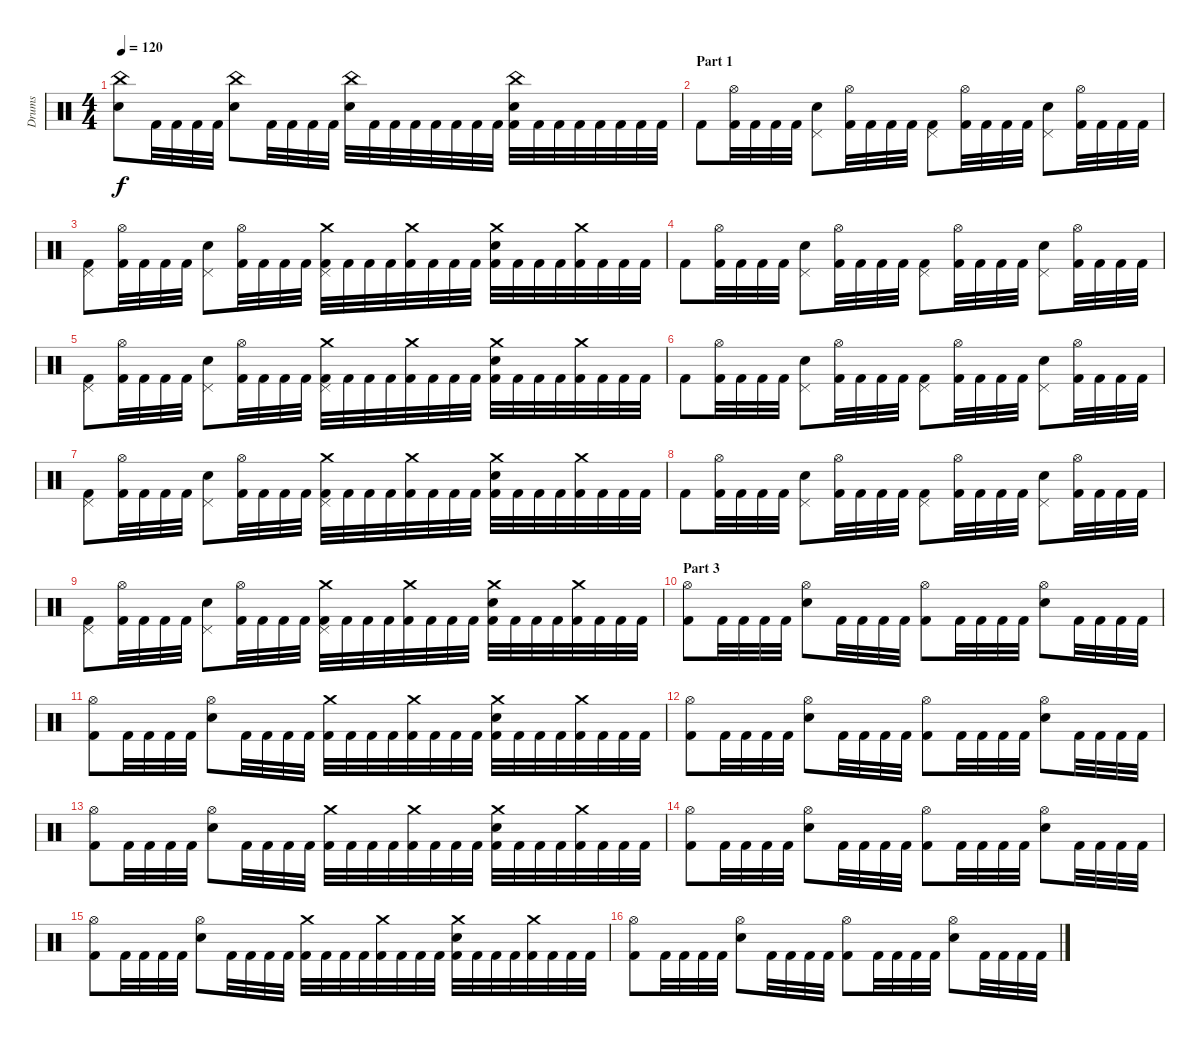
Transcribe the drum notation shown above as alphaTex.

\track ("Drums" "Drums") {instrument percussion}
\staff {score}
\articulation defaults
\ts (4 4)
\tempo 120
\clef neutral
\ks c
("China (hit)" "Electric Snare (hit)").8{dy f} "Kick (hit) 2".32 "Kick (hit) 2".32 "Kick (hit) 2".32 "Kick (hit) 2".32 ("China (hit)" "Electric Snare (hit)").8 "Kick (hit) 2".32 "Kick (hit) 2".32 "Kick (hit) 2".32 "Kick (hit) 2".32 ("China (hit)" "Electric Snare (hit)").32 "Kick (hit) 2".32 "Kick (hit) 2".32 "Kick (hit) 2".32 "Kick (hit) 2".32 "Kick (hit) 2".32 "Kick (hit) 2".32 "Kick (hit) 2".32 ("China (hit)" "Electric Snare (hit)" "Kick (hit) 2").32 "Kick (hit) 2".32 "Kick (hit) 2".32 "Kick (hit) 2".32 "Kick (hit) 2".32 "Kick (hit) 2".32 "Kick (hit) 2".32 "Kick (hit) 2".32 |
\section ("" "Part 1")
"Kick (hit) 2".8 ("Hi-Hat (open)" "Kick (hit) 2").32 "Kick (hit) 2".32 "Kick (hit) 2".32 "Kick (hit) 2".32 ("Pedal Hi-Hat (hit)" "Electric Snare (hit)").8 ("Hi-Hat (open)" "Kick (hit) 2").32 "Kick (hit) 2".32 "Kick (hit) 2".32 "Kick (hit) 2".32 ("Pedal Hi-Hat (hit)" "Kick (hit) 2").8 ("Hi-Hat (open)" "Kick (hit) 2").32 "Kick (hit) 2".32 "Kick (hit) 2".32 "Kick (hit) 2".32 ("Pedal Hi-Hat (hit)" "Electric Snare (hit)").8 ("Hi-Hat (open)" "Kick (hit) 2").32 "Kick (hit) 2".32 "Kick (hit) 2".32 "Kick (hit) 2".32 |
("Pedal Hi-Hat (hit)" "Kick (hit) 2").8 ("Hi-Hat (open)" "Kick (hit) 2").32 "Kick (hit) 2".32 "Kick (hit) 2".32 "Kick (hit) 2".32 ("Pedal Hi-Hat (hit)" "Electric Snare (hit)").8 ("Hi-Hat (open)" "Kick (hit) 2").32 "Kick (hit) 2".32 "Kick (hit) 2".32 "Kick (hit) 2".32 ("Crash medium (hit)" "Pedal Hi-Hat (hit)" "Kick (hit) 2").32 "Kick (hit) 2".32 "Kick (hit) 2".32 "Kick (hit) 2".32 ("Crash medium (hit)" "Kick (hit) 2").32 "Kick (hit) 2".32 "Kick (hit) 2".32 "Kick (hit) 2".32 ("Crash medium (hit)" "Electric Snare (hit)" "Kick (hit) 2").32 "Kick (hit) 2".32 "Kick (hit) 2".32 "Kick (hit) 2".32 ("Crash medium (hit)" "Kick (hit) 2").32 "Kick (hit) 2".32 "Kick (hit) 2".32 "Kick (hit) 2".32 |
"Kick (hit) 2".8 ("Hi-Hat (open)" "Kick (hit) 2").32 "Kick (hit) 2".32 "Kick (hit) 2".32 "Kick (hit) 2".32 ("Pedal Hi-Hat (hit)" "Electric Snare (hit)").8 ("Hi-Hat (open)" "Kick (hit) 2").32 "Kick (hit) 2".32 "Kick (hit) 2".32 "Kick (hit) 2".32 ("Pedal Hi-Hat (hit)" "Kick (hit) 2").8 ("Hi-Hat (open)" "Kick (hit) 2").32 "Kick (hit) 2".32 "Kick (hit) 2".32 "Kick (hit) 2".32 ("Pedal Hi-Hat (hit)" "Electric Snare (hit)").8 ("Hi-Hat (open)" "Kick (hit) 2").32 "Kick (hit) 2".32 "Kick (hit) 2".32 "Kick (hit) 2".32 |
("Pedal Hi-Hat (hit)" "Kick (hit) 2").8 ("Hi-Hat (open)" "Kick (hit) 2").32 "Kick (hit) 2".32 "Kick (hit) 2".32 "Kick (hit) 2".32 ("Pedal Hi-Hat (hit)" "Electric Snare (hit)").8 ("Hi-Hat (open)" "Kick (hit) 2").32 "Kick (hit) 2".32 "Kick (hit) 2".32 "Kick (hit) 2".32 ("Crash medium (hit)" "Pedal Hi-Hat (hit)" "Kick (hit) 2").32 "Kick (hit) 2".32 "Kick (hit) 2".32 "Kick (hit) 2".32 ("Crash medium (hit)" "Kick (hit) 2").32 "Kick (hit) 2".32 "Kick (hit) 2".32 "Kick (hit) 2".32 ("Crash medium (hit)" "Electric Snare (hit)" "Kick (hit) 2").32 "Kick (hit) 2".32 "Kick (hit) 2".32 "Kick (hit) 2".32 ("Crash medium (hit)" "Kick (hit) 2").32 "Kick (hit) 2".32 "Kick (hit) 2".32 "Kick (hit) 2".32 |
"Kick (hit) 2".8 ("Hi-Hat (open)" "Kick (hit) 2").32 "Kick (hit) 2".32 "Kick (hit) 2".32 "Kick (hit) 2".32 ("Pedal Hi-Hat (hit)" "Electric Snare (hit)").8 ("Hi-Hat (open)" "Kick (hit) 2").32 "Kick (hit) 2".32 "Kick (hit) 2".32 "Kick (hit) 2".32 ("Pedal Hi-Hat (hit)" "Kick (hit) 2").8 ("Hi-Hat (open)" "Kick (hit) 2").32 "Kick (hit) 2".32 "Kick (hit) 2".32 "Kick (hit) 2".32 ("Pedal Hi-Hat (hit)" "Electric Snare (hit)").8 ("Hi-Hat (open)" "Kick (hit) 2").32 "Kick (hit) 2".32 "Kick (hit) 2".32 "Kick (hit) 2".32 |
("Pedal Hi-Hat (hit)" "Kick (hit) 2").8 ("Hi-Hat (open)" "Kick (hit) 2").32 "Kick (hit) 2".32 "Kick (hit) 2".32 "Kick (hit) 2".32 ("Pedal Hi-Hat (hit)" "Electric Snare (hit)").8 ("Hi-Hat (open)" "Kick (hit) 2").32 "Kick (hit) 2".32 "Kick (hit) 2".32 "Kick (hit) 2".32 ("Crash medium (hit)" "Pedal Hi-Hat (hit)" "Kick (hit) 2").32 "Kick (hit) 2".32 "Kick (hit) 2".32 "Kick (hit) 2".32 ("Crash medium (hit)" "Kick (hit) 2").32 "Kick (hit) 2".32 "Kick (hit) 2".32 "Kick (hit) 2".32 ("Crash medium (hit)" "Electric Snare (hit)" "Kick (hit) 2").32 "Kick (hit) 2".32 "Kick (hit) 2".32 "Kick (hit) 2".32 ("Crash medium (hit)" "Kick (hit) 2").32 "Kick (hit) 2".32 "Kick (hit) 2".32 "Kick (hit) 2".32 |
"Kick (hit) 2".8 ("Hi-Hat (open)" "Kick (hit) 2").32 "Kick (hit) 2".32 "Kick (hit) 2".32 "Kick (hit) 2".32 ("Pedal Hi-Hat (hit)" "Electric Snare (hit)").8 ("Hi-Hat (open)" "Kick (hit) 2").32 "Kick (hit) 2".32 "Kick (hit) 2".32 "Kick (hit) 2".32 ("Pedal Hi-Hat (hit)" "Kick (hit) 2").8 ("Hi-Hat (open)" "Kick (hit) 2").32 "Kick (hit) 2".32 "Kick (hit) 2".32 "Kick (hit) 2".32 ("Pedal Hi-Hat (hit)" "Electric Snare (hit)").8 ("Hi-Hat (open)" "Kick (hit) 2").32 "Kick (hit) 2".32 "Kick (hit) 2".32 "Kick (hit) 2".32 |
("Pedal Hi-Hat (hit)" "Kick (hit) 2").8 ("Hi-Hat (open)" "Kick (hit) 2").32 "Kick (hit) 2".32 "Kick (hit) 2".32 "Kick (hit) 2".32 ("Pedal Hi-Hat (hit)" "Electric Snare (hit)").8 ("Hi-Hat (open)" "Kick (hit) 2").32 "Kick (hit) 2".32 "Kick (hit) 2".32 "Kick (hit) 2".32 ("Crash medium (hit)" "Pedal Hi-Hat (hit)" "Kick (hit) 2").32 "Kick (hit) 2".32 "Kick (hit) 2".32 "Kick (hit) 2".32 ("Crash medium (hit)" "Kick (hit) 2").32 "Kick (hit) 2".32 "Kick (hit) 2".32 "Kick (hit) 2".32 ("Crash medium (hit)" "Electric Snare (hit)" "Kick (hit) 2").32 "Kick (hit) 2".32 "Kick (hit) 2".32 "Kick (hit) 2".32 ("Crash medium (hit)" "Kick (hit) 2").32 "Kick (hit) 2".32 "Kick (hit) 2".32 "Kick (hit) 2".32 |
\section ("" "Part 3")
("Hi-Hat (open)" "Kick (hit) 2").8 "Kick (hit) 2".32 "Kick (hit) 2".32 "Kick (hit) 2".32 "Kick (hit) 2".32 ("Hi-Hat (open)" "Electric Snare (hit)").8 "Kick (hit) 2".32 "Kick (hit) 2".32 "Kick (hit) 2".32 "Kick (hit) 2".32 ("Hi-Hat (open)" "Kick (hit) 2").8 "Kick (hit) 2".32 "Kick (hit) 2".32 "Kick (hit) 2".32 "Kick (hit) 2".32 ("Hi-Hat (open)" "Electric Snare (hit)").8 "Kick (hit) 2".32 "Kick (hit) 2".32 "Kick (hit) 2".32 "Kick (hit) 2".32 |
("Hi-Hat (open)" "Kick (hit) 2").8 "Kick (hit) 2".32 "Kick (hit) 2".32 "Kick (hit) 2".32 "Kick (hit) 2".32 ("Hi-Hat (open)" "Electric Snare (hit)").8 "Kick (hit) 2".32 "Kick (hit) 2".32 "Kick (hit) 2".32 "Kick (hit) 2".32 ("Crash medium (hit)" "Kick (hit) 2").32 "Kick (hit) 2".32 "Kick (hit) 2".32 "Kick (hit) 2".32 ("Crash medium (hit)" "Kick (hit) 2").32 "Kick (hit) 2".32 "Kick (hit) 2".32 "Kick (hit) 2".32 ("Crash medium (hit)" "Electric Snare (hit)" "Kick (hit) 2").32 "Kick (hit) 2".32 "Kick (hit) 2".32 "Kick (hit) 2".32 ("Crash medium (hit)" "Kick (hit) 2").32 "Kick (hit) 2".32 "Kick (hit) 2".32 "Kick (hit) 2".32 |
("Hi-Hat (open)" "Kick (hit) 2").8 "Kick (hit) 2".32 "Kick (hit) 2".32 "Kick (hit) 2".32 "Kick (hit) 2".32 ("Hi-Hat (open)" "Electric Snare (hit)").8 "Kick (hit) 2".32 "Kick (hit) 2".32 "Kick (hit) 2".32 "Kick (hit) 2".32 ("Hi-Hat (open)" "Kick (hit) 2").8 "Kick (hit) 2".32 "Kick (hit) 2".32 "Kick (hit) 2".32 "Kick (hit) 2".32 ("Hi-Hat (open)" "Electric Snare (hit)").8 "Kick (hit) 2".32 "Kick (hit) 2".32 "Kick (hit) 2".32 "Kick (hit) 2".32 |
("Hi-Hat (open)" "Kick (hit) 2").8 "Kick (hit) 2".32 "Kick (hit) 2".32 "Kick (hit) 2".32 "Kick (hit) 2".32 ("Hi-Hat (open)" "Electric Snare (hit)").8 "Kick (hit) 2".32 "Kick (hit) 2".32 "Kick (hit) 2".32 "Kick (hit) 2".32 ("Crash medium (hit)" "Kick (hit) 2").32 "Kick (hit) 2".32 "Kick (hit) 2".32 "Kick (hit) 2".32 ("Crash medium (hit)" "Kick (hit) 2").32 "Kick (hit) 2".32 "Kick (hit) 2".32 "Kick (hit) 2".32 ("Crash medium (hit)" "Electric Snare (hit)" "Kick (hit) 2").32 "Kick (hit) 2".32 "Kick (hit) 2".32 "Kick (hit) 2".32 ("Crash medium (hit)" "Kick (hit) 2").32 "Kick (hit) 2".32 "Kick (hit) 2".32 "Kick (hit) 2".32 |
("Hi-Hat (open)" "Kick (hit) 2").8 "Kick (hit) 2".32 "Kick (hit) 2".32 "Kick (hit) 2".32 "Kick (hit) 2".32 ("Hi-Hat (open)" "Electric Snare (hit)").8 "Kick (hit) 2".32 "Kick (hit) 2".32 "Kick (hit) 2".32 "Kick (hit) 2".32 ("Hi-Hat (open)" "Kick (hit) 2").8 "Kick (hit) 2".32 "Kick (hit) 2".32 "Kick (hit) 2".32 "Kick (hit) 2".32 ("Hi-Hat (open)" "Electric Snare (hit)").8 "Kick (hit) 2".32 "Kick (hit) 2".32 "Kick (hit) 2".32 "Kick (hit) 2".32 |
("Hi-Hat (open)" "Kick (hit) 2").8 "Kick (hit) 2".32 "Kick (hit) 2".32 "Kick (hit) 2".32 "Kick (hit) 2".32 ("Hi-Hat (open)" "Electric Snare (hit)").8 "Kick (hit) 2".32 "Kick (hit) 2".32 "Kick (hit) 2".32 "Kick (hit) 2".32 ("Crash medium (hit)" "Kick (hit) 2").32 "Kick (hit) 2".32 "Kick (hit) 2".32 "Kick (hit) 2".32 ("Crash medium (hit)" "Kick (hit) 2").32 "Kick (hit) 2".32 "Kick (hit) 2".32 "Kick (hit) 2".32 ("Crash medium (hit)" "Electric Snare (hit)" "Kick (hit) 2").32 "Kick (hit) 2".32 "Kick (hit) 2".32 "Kick (hit) 2".32 ("Crash medium (hit)" "Kick (hit) 2").32 "Kick (hit) 2".32 "Kick (hit) 2".32 "Kick (hit) 2".32 |
("Hi-Hat (open)" "Kick (hit) 2").8 "Kick (hit) 2".32 "Kick (hit) 2".32 "Kick (hit) 2".32 "Kick (hit) 2".32 ("Hi-Hat (open)" "Electric Snare (hit)").8 "Kick (hit) 2".32 "Kick (hit) 2".32 "Kick (hit) 2".32 "Kick (hit) 2".32 ("Hi-Hat (open)" "Kick (hit) 2").8 "Kick (hit) 2".32 "Kick (hit) 2".32 "Kick (hit) 2".32 "Kick (hit) 2".32 ("Hi-Hat (open)" "Electric Snare (hit)").8 "Kick (hit) 2".32 "Kick (hit) 2".32 "Kick (hit) 2".32 "Kick (hit) 2".32
